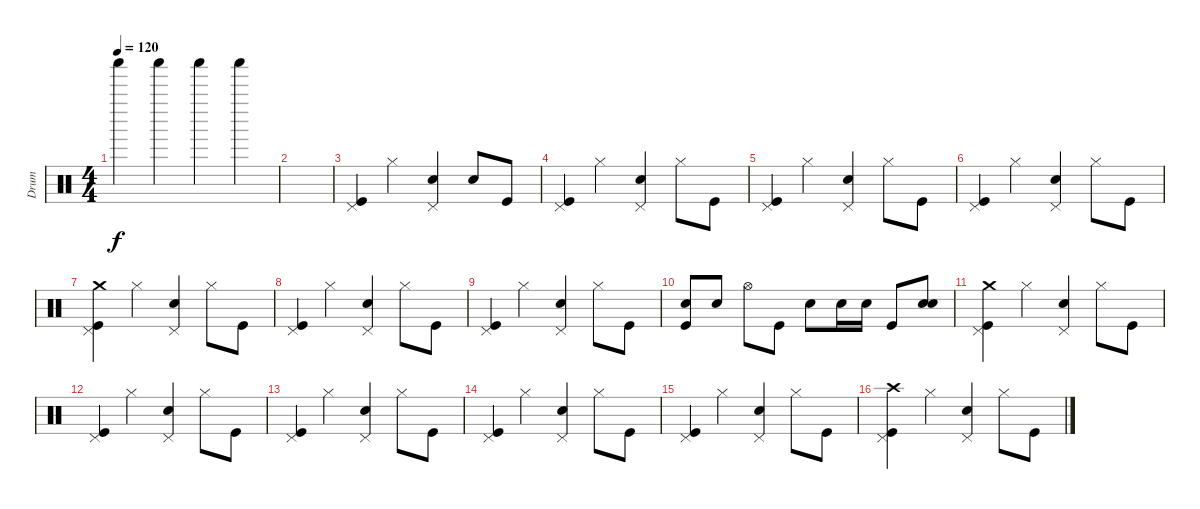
\track ("Drum" "Drum") {instrument percussion}
\staff {score}
\articulation defaults
\ts (4 4)
\tempo 120
\clef neutral
\ks c "Shaker (hit)".4{dy f} "Shaker (hit)".4 "Shaker (hit)".4 "Shaker (hit)".4
|
|
("Pedal Hi-Hat (hit)" "Kick (hit)").4 "Hi-Hat (closed)".4 ("Pedal Hi-Hat (hit)" "Snare (hit) 2").4 "Electric Snare (hit)".8 "Kick (hit)".8 |
("Pedal Hi-Hat (hit)" "Kick (hit)").4 "Hi-Hat (closed)".4 ("Pedal Hi-Hat (hit)" "Snare (hit) 2").4 "Hi-Hat (closed)".8 "Kick (hit)".8 |
("Pedal Hi-Hat (hit)" "Kick (hit)").4 "Hi-Hat (closed)".4 ("Pedal Hi-Hat (hit)" "Snare (hit) 2").4 "Hi-Hat (closed)".8 "Kick (hit)".8 |
("Pedal Hi-Hat (hit)" "Kick (hit)").4 "Hi-Hat (closed)".4 ("Pedal Hi-Hat (hit)" "Snare (hit) 2").4 "Hi-Hat (closed)".8 "Kick (hit)".8 |
("Pedal Hi-Hat (hit)" "Crash medium (hit)" "Kick (hit)").4 "Hi-Hat (closed)".4 ("Pedal Hi-Hat (hit)" "Snare (hit) 2").4 "Hi-Hat (closed)".8 "Kick (hit)".8 |
("Pedal Hi-Hat (hit)" "Kick (hit)").4 "Hi-Hat (closed)".4 ("Pedal Hi-Hat (hit)" "Snare (hit) 2").4 "Hi-Hat (closed)".8 "Kick (hit)".8 |
("Pedal Hi-Hat (hit)" "Kick (hit)").4 "Hi-Hat (closed)".4 ("Pedal Hi-Hat (hit)" "Snare (hit) 2").4 "Hi-Hat (closed)".8 "Kick (hit)".8 |
("Electric Snare (hit)" "Kick (hit)").8 "Snare (hit) 2".8 "Hi-Hat (open)".8 "Kick (hit)".8 "Snare (hit) 2".8 "Electric Snare (hit)".16 "Electric Snare (hit)".16 "Kick (hit)".8 ("Electric Snare (hit)" "Snare (hit) 2").8 |
("Pedal Hi-Hat (hit)" "Crash medium (hit)" "Kick (hit)").4 "Hi-Hat (closed)".4 ("Pedal Hi-Hat (hit)" "Snare (hit) 2").4 "Hi-Hat (closed)".8 "Kick (hit)".8 |
("Pedal Hi-Hat (hit)" "Kick (hit)").4 "Hi-Hat (closed)".4 ("Pedal Hi-Hat (hit)" "Snare (hit) 2").4 "Hi-Hat (closed)".8 "Kick (hit)".8 |
("Pedal Hi-Hat (hit)" "Kick (hit)").4 "Hi-Hat (closed)".4 ("Pedal Hi-Hat (hit)" "Snare (hit) 2").4 "Hi-Hat (closed)".8 "Kick (hit)".8 |
("Pedal Hi-Hat (hit)" "Kick (hit)").4 "Hi-Hat (closed)".4 ("Pedal Hi-Hat (hit)" "Snare (hit) 2").4 "Hi-Hat (closed)".8 "Kick (hit)".8 |
("Pedal Hi-Hat (hit)" "Kick (hit)").4 "Hi-Hat (closed)".4 ("Pedal Hi-Hat (hit)" "Snare (hit) 2").4 "Hi-Hat (closed)".8 "Kick (hit)".8 |
("Pedal Hi-Hat (hit)" "Crash high (hit)" "Kick (hit)").4 "Hi-Hat (closed)".4 ("Pedal Hi-Hat (hit)" "Snare (hit) 2").4 "Hi-Hat (closed)".8 "Kick (hit)".8
